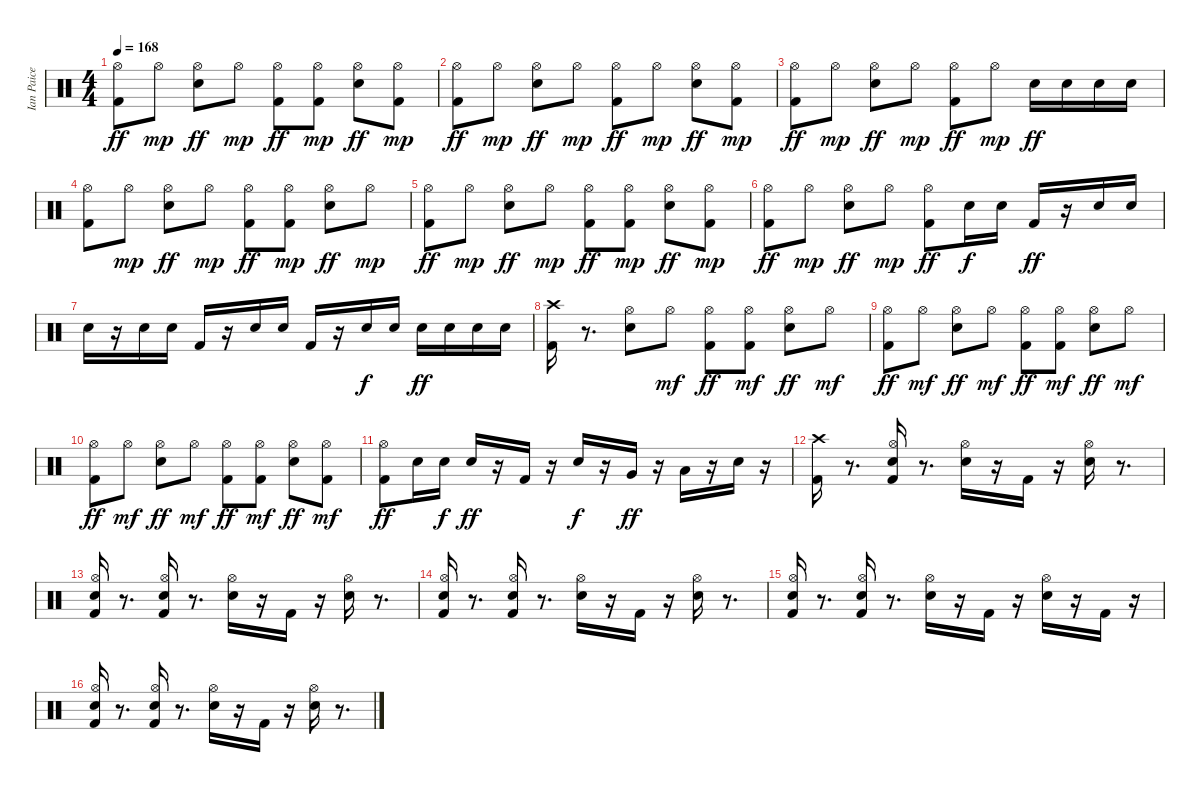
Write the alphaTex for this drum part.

\track ("Ian Paice" "Ian Paice") {instrument percussion}
\staff {score}
\articulation defaults
\ts (4 4)
\tempo 168
\clef neutral
\ks c
("Kick (hit) 2" "Hi-Hat (open)").8{dy ff} "Hi-Hat (open)".8{dy mp} ("Hi-Hat (open)" "Electric Snare (hit)").8{dy ff} "Hi-Hat (open)".8{dy mp} ("Kick (hit) 2" "Hi-Hat (open)").8{dy ff} ("Kick (hit) 2" "Hi-Hat (open)").8{dy mp} ("Hi-Hat (open)" "Electric Snare (hit)").8{dy ff} ("Kick (hit) 2" "Hi-Hat (open)").8{dy mp} |
("Kick (hit) 2" "Hi-Hat (open)").8{dy ff} "Hi-Hat (open)".8{dy mp} ("Hi-Hat (open)" "Electric Snare (hit)").8{dy ff} "Hi-Hat (open)".8{dy mp} ("Kick (hit) 2" "Hi-Hat (open)").8{dy ff} "Hi-Hat (open)".8{dy mp} ("Hi-Hat (open)" "Electric Snare (hit)").8{dy ff} ("Kick (hit) 2" "Hi-Hat (open)").8{dy mp} |
("Kick (hit) 2" "Hi-Hat (open)").8{dy ff} "Hi-Hat (open)".8{dy mp} ("Hi-Hat (open)" "Electric Snare (hit)").8{dy ff} "Hi-Hat (open)".8{dy mp} ("Kick (hit) 2" "Hi-Hat (open)").8{dy ff} "Hi-Hat (open)".8{dy mp} "Electric Snare (hit)".16{dy ff} "Electric Snare (hit)".16 "Electric Snare (hit)".16 "Electric Snare (hit)".16 |
("Kick (hit) 2" "Hi-Hat (open)").8 "Hi-Hat (open)".8{dy mp} ("Hi-Hat (open)" "Electric Snare (hit)").8{dy ff} "Hi-Hat (open)".8{dy mp} ("Kick (hit) 2" "Hi-Hat (open)").8{dy ff} ("Kick (hit) 2" "Hi-Hat (open)").8{dy mp} ("Hi-Hat (open)" "Electric Snare (hit)").8{dy ff} "Hi-Hat (open)".8{dy mp} |
("Kick (hit) 2" "Hi-Hat (open)").8{dy ff} "Hi-Hat (open)".8{dy mp} ("Hi-Hat (open)" "Electric Snare (hit)").8{dy ff} "Hi-Hat (open)".8{dy mp} ("Kick (hit) 2" "Hi-Hat (open)").8{dy ff} ("Kick (hit) 2" "Hi-Hat (open)").8{dy mp} ("Hi-Hat (open)" "Electric Snare (hit)").8{dy ff} ("Kick (hit) 2" "Hi-Hat (open)").8{dy mp} |
("Kick (hit) 2" "Hi-Hat (open)").8{dy ff} "Hi-Hat (open)".8{dy mp} ("Hi-Hat (open)" "Electric Snare (hit)").8{dy ff} "Hi-Hat (open)".8{dy mp} ("Hi-Hat (open)" "Kick (hit) 2").8{dy ff} "Electric Snare (hit)".16{dy f} "Electric Snare (hit)".16 "Kick (hit) 2".16{dy ff} r.16 "Electric Snare (hit)".16 "Electric Snare (hit)".16 |
"Electric Snare (hit)".16 r.16 "Electric Snare (hit)".16 "Electric Snare (hit)".16 "Kick (hit) 2".16 r.16 "Electric Snare (hit)".16 "Electric Snare (hit)".16 "Kick (hit) 2".16 r.16 "Electric Snare (hit)".16{dy f} "Electric Snare (hit)".16 "Electric Snare (hit)".16{dy ff} "Electric Snare (hit)".16 "Electric Snare (hit)".16 "Electric Snare (hit)".16 |
("Crash high (hit)" "Kick (hit) 2").16 r.8{d} ("Hi-Hat (open)" "Electric Snare (hit)").8 "Hi-Hat (open)".8{dy mf} ("Kick (hit) 2" "Hi-Hat (open)").8{dy ff} ("Kick (hit) 2" "Hi-Hat (open)").8{dy mf} ("Hi-Hat (open)" "Electric Snare (hit)").8{dy ff} "Hi-Hat (open)".8{dy mf} |
("Kick (hit) 2" "Hi-Hat (open)").8{dy ff} "Hi-Hat (open)".8{dy mf} ("Hi-Hat (open)" "Electric Snare (hit)").8{dy ff} "Hi-Hat (open)".8{dy mf} ("Kick (hit) 2" "Hi-Hat (open)").8{dy ff} ("Kick (hit) 2" "Hi-Hat (open)").8{dy mf} ("Hi-Hat (open)" "Electric Snare (hit)").8{dy ff} "Hi-Hat (open)".8{dy mf} |
("Kick (hit) 2" "Hi-Hat (open)").8{dy ff} "Hi-Hat (open)".8{dy mf} ("Hi-Hat (open)" "Electric Snare (hit)").8{dy ff} "Hi-Hat (open)".8{dy mf} ("Kick (hit) 2" "Hi-Hat (open)").8{dy ff} ("Kick (hit) 2" "Hi-Hat (open)").8{dy mf} ("Hi-Hat (open)" "Electric Snare (hit)").8{dy ff} ("Kick (hit) 2" "Hi-Hat (open)").8{dy mf} |
("Hi-Hat (open)" "Kick (hit) 2").8{dy ff} "Electric Snare (hit)".16 "Electric Snare (hit)".16{dy f} "Electric Snare (hit)".16{dy ff} r.16 "Kick (hit) 2".16 r.16 "Electric Snare (hit)".16{dy f} r.16 "Very Low Tom (hit)".16{dy ff} r.16 "Low Floor Tom (hit)".16 r.16 "Electric Snare (hit)".16 r.16 |
("Crash high (hit)" "Kick (hit) 2").16 r.8{d} ("Electric Snare (hit)" "Kick (hit) 2" "Hi-Hat (open)").16 r.8{d} ("Electric Snare (hit)" "Hi-Hat (open)").16 r.16 "Kick (hit) 2".16 r.16 ("Electric Snare (hit)" "Hi-Hat (open)").16 r.8{d} |
("Electric Snare (hit)" "Kick (hit) 2" "Hi-Hat (open)").16 r.8{d} ("Electric Snare (hit)" "Kick (hit) 2" "Hi-Hat (open)").16 r.8{d} ("Electric Snare (hit)" "Hi-Hat (open)").16 r.16 "Kick (hit) 2".16 r.16 ("Electric Snare (hit)" "Hi-Hat (open)").16 r.8{d} |
("Electric Snare (hit)" "Kick (hit) 2" "Hi-Hat (open)").16 r.8{d} ("Electric Snare (hit)" "Kick (hit) 2" "Hi-Hat (open)").16 r.8{d} ("Electric Snare (hit)" "Hi-Hat (open)").16 r.16 "Kick (hit) 2".16 r.16 ("Electric Snare (hit)" "Hi-Hat (open)").16 r.8{d} |
("Electric Snare (hit)" "Kick (hit) 2" "Hi-Hat (open)").16 r.8{d} ("Electric Snare (hit)" "Kick (hit) 2" "Hi-Hat (open)").16 r.8{d} ("Electric Snare (hit)" "Hi-Hat (open)").16 r.16 "Kick (hit) 2".16 r.16 ("Electric Snare (hit)" "Hi-Hat (open)").16 r.16 "Kick (hit) 2".16 r.16 |
("Electric Snare (hit)" "Kick (hit) 2" "Hi-Hat (open)").16 r.8{d} ("Electric Snare (hit)" "Kick (hit) 2" "Hi-Hat (open)").16 r.8{d} ("Electric Snare (hit)" "Hi-Hat (open)").16 r.16 "Kick (hit) 2".16 r.16 ("Electric Snare (hit)" "Hi-Hat (open)").16 r.8{d}
